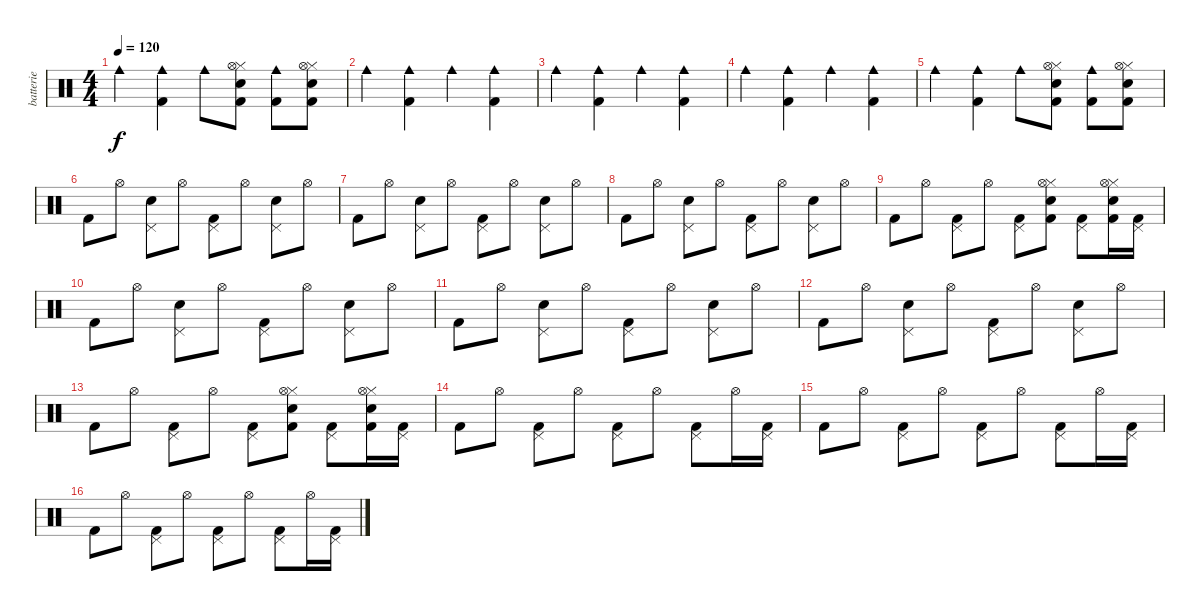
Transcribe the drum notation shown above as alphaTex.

\track ("batterie" "batterie") {instrument percussion}
\staff {score}
\articulation defaults
\ts (4 4)
\tempo 120
\clef neutral
\ks c "Cowbell medium (hit)".4{dy f}
("Kick (hit) 2" "Cowbell medium (hit)").4 "Cowbell medium (hit)".8 ("Kick (hit) 2" "Electric Snare (hit)" "Hi-Hat (closed)" "Hi-Hat (open)").8 ("Kick (hit) 2" "Cowbell medium (hit)").8 ("Kick (hit) 2" "Electric Snare (hit)" "Hi-Hat (closed)" "Hi-Hat (open)").8 |
"Cowbell medium (hit)".4 ("Kick (hit) 2" "Cowbell medium (hit)").4 "Cowbell medium (hit)".4 ("Kick (hit) 2" "Cowbell medium (hit)").4 |
"Cowbell medium (hit)".4 ("Kick (hit) 2" "Cowbell medium (hit)").4 "Cowbell medium (hit)".4 ("Kick (hit) 2" "Cowbell medium (hit)").4 |
"Cowbell medium (hit)".4 ("Kick (hit) 2" "Cowbell medium (hit)").4 "Cowbell medium (hit)".4 ("Kick (hit) 2" "Cowbell medium (hit)").4 |
"Cowbell medium (hit)".4 ("Kick (hit) 2" "Cowbell medium (hit)").4 "Cowbell medium (hit)".8 ("Kick (hit) 2" "Electric Snare (hit)" "Hi-Hat (closed)" "Hi-Hat (open)").8 ("Kick (hit) 2" "Cowbell medium (hit)").8 ("Kick (hit) 2" "Electric Snare (hit)" "Hi-Hat (closed)" "Hi-Hat (open)").8 |
"Kick (hit) 2".8 "Hi-Hat (open)".8 ("Electric Snare (hit)" "Pedal Hi-Hat (hit)").8 "Hi-Hat (open)".8 ("Kick (hit) 2" "Pedal Hi-Hat (hit)").8 "Hi-Hat (open)".8 ("Electric Snare (hit)" "Pedal Hi-Hat (hit)").8 "Hi-Hat (open)".8 |
"Kick (hit) 2".8 "Hi-Hat (open)".8 ("Electric Snare (hit)" "Pedal Hi-Hat (hit)").8 "Hi-Hat (open)".8 ("Kick (hit) 2" "Pedal Hi-Hat (hit)").8 "Hi-Hat (open)".8 ("Electric Snare (hit)" "Pedal Hi-Hat (hit)").8 "Hi-Hat (open)".8 |
"Kick (hit) 2".8 "Hi-Hat (open)".8 ("Electric Snare (hit)" "Pedal Hi-Hat (hit)").8 "Hi-Hat (open)".8 ("Kick (hit) 2" "Pedal Hi-Hat (hit)").8 "Hi-Hat (open)".8 ("Electric Snare (hit)" "Pedal Hi-Hat (hit)").8 "Hi-Hat (open)".8 |
"Kick (hit) 2".8 "Hi-Hat (open)".8 ("Kick (hit) 2" "Pedal Hi-Hat (hit)").8 "Hi-Hat (open)".8 ("Kick (hit) 2" "Pedal Hi-Hat (hit)").8 ("Kick (hit) 2" "Hi-Hat (closed)" "Electric Snare (hit)" "Hi-Hat (open)").8 ("Kick (hit) 2" "Pedal Hi-Hat (hit)").8 ("Kick (hit) 2" "Hi-Hat (closed)" "Electric Snare (hit)" "Hi-Hat (open)").16 ("Kick (hit) 2" "Pedal Hi-Hat (hit)").16 |
"Kick (hit) 2".8 "Hi-Hat (open)".8 ("Electric Snare (hit)" "Pedal Hi-Hat (hit)").8 "Hi-Hat (open)".8 ("Kick (hit) 2" "Pedal Hi-Hat (hit)").8 "Hi-Hat (open)".8 ("Electric Snare (hit)" "Pedal Hi-Hat (hit)").8 "Hi-Hat (open)".8 |
"Kick (hit) 2".8 "Hi-Hat (open)".8 ("Electric Snare (hit)" "Pedal Hi-Hat (hit)").8 "Hi-Hat (open)".8 ("Kick (hit) 2" "Pedal Hi-Hat (hit)").8 "Hi-Hat (open)".8 ("Electric Snare (hit)" "Pedal Hi-Hat (hit)").8 "Hi-Hat (open)".8 |
"Kick (hit) 2".8 "Hi-Hat (open)".8 ("Electric Snare (hit)" "Pedal Hi-Hat (hit)").8 "Hi-Hat (open)".8 ("Kick (hit) 2" "Pedal Hi-Hat (hit)").8 "Hi-Hat (open)".8 ("Electric Snare (hit)" "Pedal Hi-Hat (hit)").8 "Hi-Hat (open)".8 |
"Kick (hit) 2".8 "Hi-Hat (open)".8 ("Kick (hit) 2" "Pedal Hi-Hat (hit)").8 "Hi-Hat (open)".8 ("Kick (hit) 2" "Pedal Hi-Hat (hit)").8 ("Kick (hit) 2" "Hi-Hat (closed)" "Electric Snare (hit)" "Hi-Hat (open)").8 ("Kick (hit) 2" "Pedal Hi-Hat (hit)").8 ("Kick (hit) 2" "Hi-Hat (closed)" "Electric Snare (hit)" "Hi-Hat (open)").16 ("Kick (hit) 2" "Pedal Hi-Hat (hit)").16 |
"Kick (hit) 2".8 "Hi-Hat (open)".8 ("Kick (hit) 2" "Pedal Hi-Hat (hit)").8 "Hi-Hat (open)".8 ("Kick (hit) 2" "Pedal Hi-Hat (hit)").8 "Hi-Hat (open)".8 ("Kick (hit) 2" "Pedal Hi-Hat (hit)").8 "Hi-Hat (open)".16 ("Kick (hit) 2" "Pedal Hi-Hat (hit)").16 |
"Kick (hit) 2".8 "Hi-Hat (open)".8 ("Kick (hit) 2" "Pedal Hi-Hat (hit)").8 "Hi-Hat (open)".8 ("Kick (hit) 2" "Pedal Hi-Hat (hit)").8 "Hi-Hat (open)".8 ("Kick (hit) 2" "Pedal Hi-Hat (hit)").8 "Hi-Hat (open)".16 ("Kick (hit) 2" "Pedal Hi-Hat (hit)").16 |
"Kick (hit) 2".8 "Hi-Hat (open)".8 ("Kick (hit) 2" "Pedal Hi-Hat (hit)").8 "Hi-Hat (open)".8 ("Kick (hit) 2" "Pedal Hi-Hat (hit)").8 "Hi-Hat (open)".8 ("Kick (hit) 2" "Pedal Hi-Hat (hit)").8 "Hi-Hat (open)".16 ("Kick (hit) 2" "Pedal Hi-Hat (hit)").16
